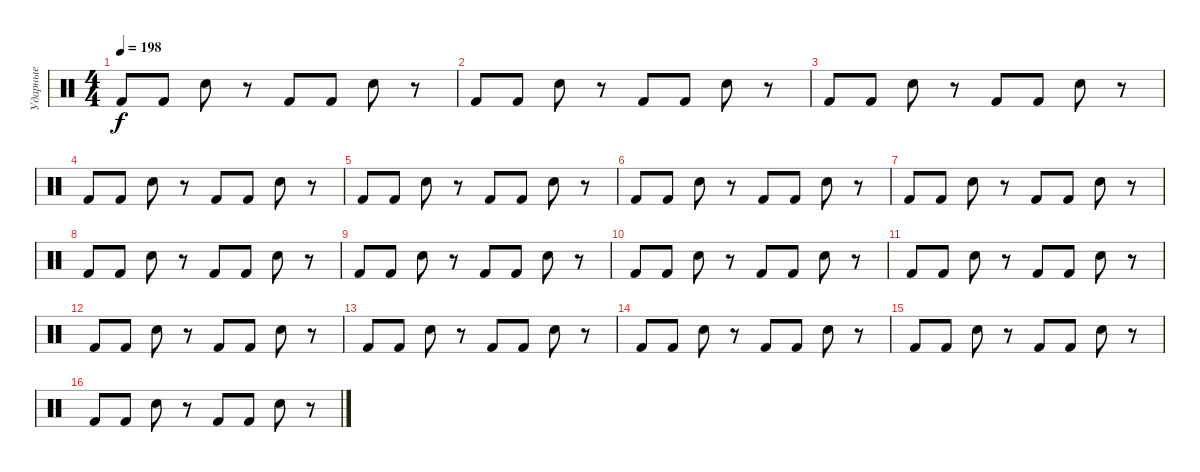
\track ("Ударные" "Ударные") {instrument percussion}
\staff {score}
\articulation defaults
\ts (4 4)
\tempo 198
\clef neutral
\ks c "Kick (hit) 2".8{dy f} "Kick (hit) 2".8 "Snare (hit) 2".8
r.8 "Kick (hit) 2".8 "Kick (hit) 2".8 "Snare (hit) 2".8 r.8 |
"Kick (hit) 2".8 "Kick (hit) 2".8 "Snare (hit) 2".8 r.8 "Kick (hit) 2".8 "Kick (hit) 2".8 "Snare (hit) 2".8 r.8 |
"Kick (hit) 2".8 "Kick (hit) 2".8 "Snare (hit) 2".8 r.8 "Kick (hit) 2".8 "Kick (hit) 2".8 "Snare (hit) 2".8 r.8 |
"Kick (hit) 2".8 "Kick (hit) 2".8 "Snare (hit) 2".8 r.8 "Kick (hit) 2".8 "Kick (hit) 2".8 "Snare (hit) 2".8 r.8 |
"Kick (hit) 2".8 "Kick (hit) 2".8 "Snare (hit) 2".8 r.8 "Kick (hit) 2".8 "Kick (hit) 2".8 "Snare (hit) 2".8 r.8 |
"Kick (hit) 2".8 "Kick (hit) 2".8 "Snare (hit) 2".8 r.8 "Kick (hit) 2".8 "Kick (hit) 2".8 "Snare (hit) 2".8 r.8 |
"Kick (hit) 2".8 "Kick (hit) 2".8 "Snare (hit) 2".8 r.8 "Kick (hit) 2".8 "Kick (hit) 2".8 "Snare (hit) 2".8 r.8 |
"Kick (hit) 2".8 "Kick (hit) 2".8 "Snare (hit) 2".8 r.8 "Kick (hit) 2".8 "Kick (hit) 2".8 "Snare (hit) 2".8 r.8 |
"Kick (hit) 2".8 "Kick (hit) 2".8 "Snare (hit) 2".8 r.8 "Kick (hit) 2".8 "Kick (hit) 2".8 "Snare (hit) 2".8 r.8 |
"Kick (hit) 2".8 "Kick (hit) 2".8 "Snare (hit) 2".8 r.8 "Kick (hit) 2".8 "Kick (hit) 2".8 "Snare (hit) 2".8 r.8 |
"Kick (hit) 2".8 "Kick (hit) 2".8 "Snare (hit) 2".8 r.8 "Kick (hit) 2".8 "Kick (hit) 2".8 "Snare (hit) 2".8 r.8 |
"Kick (hit) 2".8 "Kick (hit) 2".8 "Snare (hit) 2".8 r.8 "Kick (hit) 2".8 "Kick (hit) 2".8 "Snare (hit) 2".8 r.8 |
"Kick (hit) 2".8 "Kick (hit) 2".8 "Snare (hit) 2".8 r.8 "Kick (hit) 2".8 "Kick (hit) 2".8 "Snare (hit) 2".8 r.8 |
"Kick (hit) 2".8 "Kick (hit) 2".8 "Snare (hit) 2".8 r.8 "Kick (hit) 2".8 "Kick (hit) 2".8 "Snare (hit) 2".8 r.8 |
"Kick (hit) 2".8 "Kick (hit) 2".8 "Snare (hit) 2".8 r.8 "Kick (hit) 2".8 "Kick (hit) 2".8 "Snare (hit) 2".8 r.8 |
"Kick (hit) 2".8 "Kick (hit) 2".8 "Snare (hit) 2".8 r.8 "Kick (hit) 2".8 "Kick (hit) 2".8 "Snare (hit) 2".8 r.8
